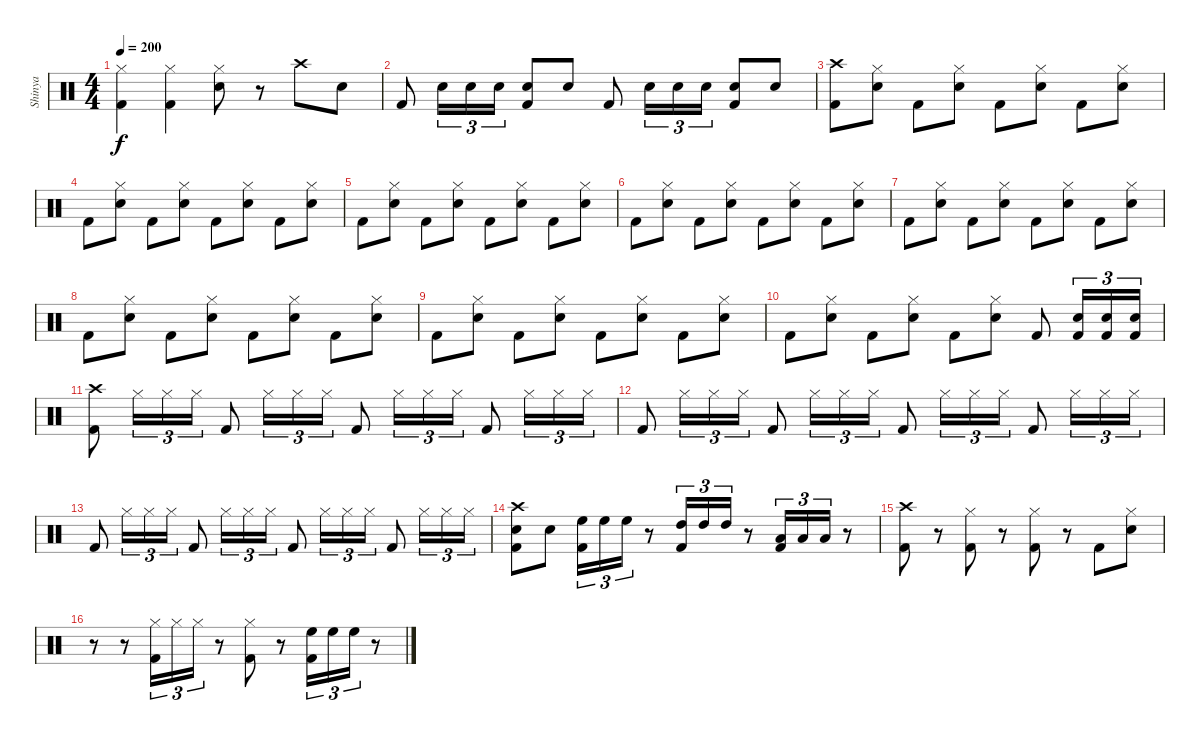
\track ("Shinya" "Shinya") {instrument percussion}
\staff {score}
\articulation defaults
\ts (4 4)
\tempo 200
\clef neutral
\ks c
("Hi-Hat (closed)" "Kick (hit) 2").4{dy f} ("Hi-Hat (closed)" "Kick (hit) 2").4 ("Hi-Hat (closed)" "Electric Snare (hit)").8 r.8 "Crash high (hit)".8 "Electric Snare (hit)".8 |
"Kick (hit) 2".8 "Electric Snare (hit)".16{tu (3 2)} "Electric Snare (hit)".16{tu (3 2)} "Electric Snare (hit)".16{tu (3 2)} ("Electric Snare (hit)" "Kick (hit) 2").8 "Electric Snare (hit)".8 "Kick (hit) 2".8 "Electric Snare (hit)".16{tu (3 2)} "Electric Snare (hit)".16{tu (3 2)} "Electric Snare (hit)".16{tu (3 2)} ("Electric Snare (hit)" "Kick (hit) 2").8 "Electric Snare (hit)".8 |
("Crash high (hit)" "Kick (hit) 2").8 ("Hi-Hat (closed)" "Electric Snare (hit)").8 "Kick (hit) 2".8 ("Hi-Hat (closed)" "Electric Snare (hit)").8 "Kick (hit) 2".8 ("Hi-Hat (closed)" "Electric Snare (hit)").8 "Kick (hit) 2".8 ("Hi-Hat (closed)" "Electric Snare (hit)").8 |
"Kick (hit) 2".8 ("Hi-Hat (closed)" "Electric Snare (hit)").8 "Kick (hit) 2".8 ("Hi-Hat (closed)" "Electric Snare (hit)").8 "Kick (hit) 2".8 ("Hi-Hat (closed)" "Electric Snare (hit)").8 "Kick (hit) 2".8 ("Hi-Hat (closed)" "Electric Snare (hit)").8 |
"Kick (hit) 2".8 ("Hi-Hat (closed)" "Electric Snare (hit)").8 "Kick (hit) 2".8 ("Hi-Hat (closed)" "Electric Snare (hit)").8 "Kick (hit) 2".8 ("Hi-Hat (closed)" "Electric Snare (hit)").8 "Kick (hit) 2".8 ("Hi-Hat (closed)" "Electric Snare (hit)").8 |
"Kick (hit) 2".8 ("Hi-Hat (closed)" "Electric Snare (hit)").8 "Kick (hit) 2".8 ("Hi-Hat (closed)" "Electric Snare (hit)").8 "Kick (hit) 2".8 ("Hi-Hat (closed)" "Electric Snare (hit)").8 "Kick (hit) 2".8 ("Hi-Hat (closed)" "Electric Snare (hit)").8 |
"Kick (hit) 2".8 ("Hi-Hat (closed)" "Electric Snare (hit)").8 "Kick (hit) 2".8 ("Hi-Hat (closed)" "Electric Snare (hit)").8 "Kick (hit) 2".8 ("Hi-Hat (closed)" "Electric Snare (hit)").8 "Kick (hit) 2".8 ("Hi-Hat (closed)" "Electric Snare (hit)").8 |
"Kick (hit) 2".8 ("Hi-Hat (closed)" "Electric Snare (hit)").8 "Kick (hit) 2".8 ("Hi-Hat (closed)" "Electric Snare (hit)").8 "Kick (hit) 2".8 ("Hi-Hat (closed)" "Electric Snare (hit)").8 "Kick (hit) 2".8 ("Hi-Hat (closed)" "Electric Snare (hit)").8 |
"Kick (hit) 2".8 ("Hi-Hat (closed)" "Electric Snare (hit)").8 "Kick (hit) 2".8 ("Hi-Hat (closed)" "Electric Snare (hit)").8 "Kick (hit) 2".8 ("Hi-Hat (closed)" "Electric Snare (hit)").8 "Kick (hit) 2".8 ("Hi-Hat (closed)" "Electric Snare (hit)").8 |
"Kick (hit) 2".8 ("Hi-Hat (closed)" "Electric Snare (hit)").8 "Kick (hit) 2".8 ("Hi-Hat (closed)" "Electric Snare (hit)").8 "Kick (hit) 2".8 ("Hi-Hat (closed)" "Electric Snare (hit)").8 "Kick (hit) 2".8 ("Electric Snare (hit)" "Kick (hit) 2").16{tu (3 2)} ("Electric Snare (hit)" "Kick (hit) 2").16{tu (3 2)} ("Electric Snare (hit)" "Kick (hit) 2").16{tu (3 2)} |
("Crash high (hit)" "Kick (hit) 2").8 "Hi-Hat (closed)".16{tu (3 2)} "Hi-Hat (closed)".16{tu (3 2)} "Hi-Hat (closed)".16{tu (3 2)} "Kick (hit) 2".8 "Hi-Hat (closed)".16{tu (3 2)} "Hi-Hat (closed)".16{tu (3 2)} "Hi-Hat (closed)".16{tu (3 2)} "Kick (hit) 2".8 "Hi-Hat (closed)".16{tu (3 2)} "Hi-Hat (closed)".16{tu (3 2)} "Hi-Hat (closed)".16{tu (3 2)} "Kick (hit) 2".8 "Hi-Hat (closed)".16{tu (3 2)} "Hi-Hat (closed)".16{tu (3 2)} "Hi-Hat (closed)".16{tu (3 2)} |
"Kick (hit) 2".8 "Hi-Hat (closed)".16{tu (3 2)} "Hi-Hat (closed)".16{tu (3 2)} "Hi-Hat (closed)".16{tu (3 2)} "Kick (hit) 2".8 "Hi-Hat (closed)".16{tu (3 2)} "Hi-Hat (closed)".16{tu (3 2)} "Hi-Hat (closed)".16{tu (3 2)} "Kick (hit) 2".8 "Hi-Hat (closed)".16{tu (3 2)} "Hi-Hat (closed)".16{tu (3 2)} "Hi-Hat (closed)".16{tu (3 2)} "Kick (hit) 2".8 "Hi-Hat (closed)".16{tu (3 2)} "Hi-Hat (closed)".16{tu (3 2)} "Hi-Hat (closed)".16{tu (3 2)} |
"Kick (hit) 2".8 "Hi-Hat (closed)".16{tu (3 2)} "Hi-Hat (closed)".16{tu (3 2)} "Hi-Hat (closed)".16{tu (3 2)} "Kick (hit) 2".8 "Hi-Hat (closed)".16{tu (3 2)} "Hi-Hat (closed)".16{tu (3 2)} "Hi-Hat (closed)".16{tu (3 2)} "Kick (hit) 2".8 "Hi-Hat (closed)".16{tu (3 2)} "Hi-Hat (closed)".16{tu (3 2)} "Hi-Hat (closed)".16{tu (3 2)} "Kick (hit) 2".8 "Hi-Hat (closed)".16{tu (3 2)} "Hi-Hat (closed)".16{tu (3 2)} "Hi-Hat (closed)".16{tu (3 2)} |
("Crash high (hit)" "Electric Snare (hit)" "Kick (hit) 2").8 "Electric Snare (hit)".8 ("High Floor Tom (hit)" "Kick (hit) 2").16{tu (3 2)} "High Floor Tom (hit)".16{tu (3 2)} "High Floor Tom (hit)".16{tu (3 2)} r.8 ("High Tom (hit)" "Kick (hit) 2").16{tu (3 2)} "High Tom (hit)".16{tu (3 2)} "High Tom (hit)".16{tu (3 2)} r.8 ("Low Tom (hit)" "Kick (hit) 2").16{tu (3 2)} "Low Tom (hit)".16{tu (3 2)} "Low Tom (hit)".16{tu (3 2)} r.8 |
("Crash high (hit)" "Kick (hit) 2").8 r.8 ("Hi-Hat (closed)" "Kick (hit) 2").8 r.8 ("Hi-Hat (closed)" "Kick (hit) 2").8 r.8 "Kick (hit) 2".8 ("Hi-Hat (closed)" "Electric Snare (hit)").8 |
r.8 r.8 ("Hi-Hat (closed)" "Kick (hit) 2").16{tu (3 2)} "Hi-Hat (closed)".16{tu (3 2)} "Hi-Hat (closed)".16{tu (3 2)} r.8 ("Hi-Hat (closed)" "Kick (hit) 2").8 r.8 ("High Floor Tom (hit)" "Kick (hit) 2").16{tu (3 2)} "High Floor Tom (hit)".16{tu (3 2)} "High Floor Tom (hit)".16{tu (3 2)} r.8
